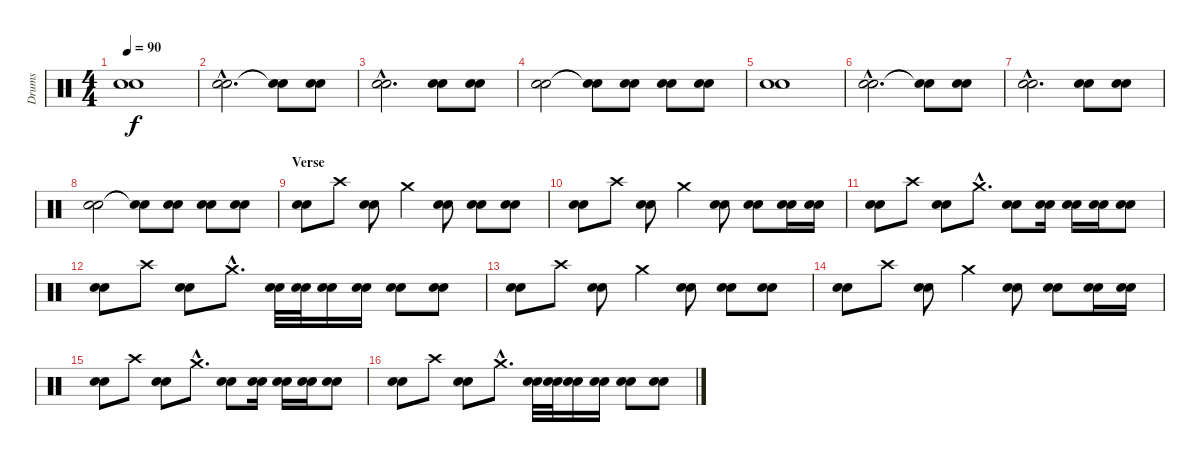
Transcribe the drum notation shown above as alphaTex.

\track ("Drums" "Drums") {instrument percussion}
\staff {score}
\articulation defaults
\ts (4 4)
\tempo 90
\clef neutral
\ks c
("Electric Snare (hit)" "Snare (hit) 2").1{dy f} |
("Electric Snare (hit)"{hac} "Snare (hit) 2"{hac}).2{d} ("Snare (hit)"{t} "Snare (hit)"{t}).8 ("Electric Snare (hit)" "Snare (hit) 2").8 |
("Electric Snare (hit)"{hac} "Snare (hit) 2"{hac}).2{d} ("Electric Snare (hit)" "Snare (hit) 2").8 ("Electric Snare (hit)" "Snare (hit) 2").8 |
("Electric Snare (hit)" "Snare (hit) 2").2 ("Snare (hit)"{t} "Snare (hit)"{t}).8 ("Electric Snare (hit)" "Snare (hit) 2").8 ("Electric Snare (hit)" "Snare (hit) 2").8 ("Electric Snare (hit)" "Snare (hit) 2").8 |
("Electric Snare (hit)" "Snare (hit) 2").1 |
("Electric Snare (hit)"{hac} "Snare (hit) 2"{hac}).2{d} ("Snare (hit)"{t} "Snare (hit)"{t}).8 ("Electric Snare (hit)" "Snare (hit) 2").8 |
("Electric Snare (hit)"{hac} "Snare (hit) 2"{hac}).2{d} ("Electric Snare (hit)" "Snare (hit) 2").8 ("Electric Snare (hit)" "Snare (hit) 2").8 |
("Electric Snare (hit)" "Snare (hit) 2").2 ("Snare (hit)"{t} "Snare (hit)"{t}).8 ("Electric Snare (hit)" "Snare (hit) 2").8 ("Electric Snare (hit)" "Snare (hit) 2").8 ("Electric Snare (hit)" "Snare (hit) 2").8 |
\section ("" "Verse")
("Electric Snare (hit)" "Snare (hit) 2").8 "Crash high (hit)".8 ("Electric Snare (hit)" "Snare (hit) 2").8 "Crash medium (hit)".4 ("Electric Snare (hit)" "Snare (hit) 2").8 ("Electric Snare (hit)" "Snare (hit) 2").8 ("Electric Snare (hit)" "Snare (hit) 2").8 |
("Electric Snare (hit)" "Snare (hit) 2").8 "Crash high (hit)".8 ("Electric Snare (hit)" "Snare (hit) 2").8 "Crash medium (hit)".4 ("Electric Snare (hit)" "Snare (hit) 2").8 ("Electric Snare (hit)" "Snare (hit) 2").8 ("Electric Snare (hit)" "Snare (hit) 2").16 ("Electric Snare (hit)" "Snare (hit) 2").16 |
("Electric Snare (hit)" "Snare (hit) 2").8 "Crash high (hit)".8 ("Electric Snare (hit)" "Snare (hit) 2").8 "Crash medium (hit)"{hac}.8{d} ("Electric Snare (hit)" "Snare (hit) 2").8 ("Electric Snare (hit)" "Snare (hit) 2").16 ("Electric Snare (hit)" "Snare (hit) 2").16 ("Electric Snare (hit)" "Snare (hit) 2").16 ("Electric Snare (hit)" "Snare (hit) 2").8 |
("Electric Snare (hit)" "Snare (hit) 2").8 "Crash high (hit)".8 ("Electric Snare (hit)" "Snare (hit) 2").8 "Crash medium (hit)"{hac}.8{d} ("Electric Snare (hit)" "Snare (hit) 2").32 ("Electric Snare (hit)" "Snare (hit) 2").32 ("Electric Snare (hit)" "Snare (hit) 2").16 ("Electric Snare (hit)" "Snare (hit) 2").16 ("Electric Snare (hit)" "Snare (hit) 2").8 ("Electric Snare (hit)" "Snare (hit) 2").8 |
("Electric Snare (hit)" "Snare (hit) 2").8 "Crash high (hit)".8 ("Electric Snare (hit)" "Snare (hit) 2").8 "Crash medium (hit)".4 ("Electric Snare (hit)" "Snare (hit) 2").8 ("Electric Snare (hit)" "Snare (hit) 2").8 ("Electric Snare (hit)" "Snare (hit) 2").8 |
("Electric Snare (hit)" "Snare (hit) 2").8 "Crash high (hit)".8 ("Electric Snare (hit)" "Snare (hit) 2").8 "Crash medium (hit)".4 ("Electric Snare (hit)" "Snare (hit) 2").8 ("Electric Snare (hit)" "Snare (hit) 2").8 ("Electric Snare (hit)" "Snare (hit) 2").16 ("Electric Snare (hit)" "Snare (hit) 2").16 |
("Electric Snare (hit)" "Snare (hit) 2").8 "Crash high (hit)".8 ("Electric Snare (hit)" "Snare (hit) 2").8 "Crash medium (hit)"{hac}.8{d} ("Electric Snare (hit)" "Snare (hit) 2").8 ("Electric Snare (hit)" "Snare (hit) 2").16 ("Electric Snare (hit)" "Snare (hit) 2").16 ("Electric Snare (hit)" "Snare (hit) 2").16 ("Electric Snare (hit)" "Snare (hit) 2").8 |
("Electric Snare (hit)" "Snare (hit) 2").8 "Crash high (hit)".8 ("Electric Snare (hit)" "Snare (hit) 2").8 "Crash medium (hit)"{hac}.8{d} ("Electric Snare (hit)" "Snare (hit) 2").32 ("Electric Snare (hit)" "Snare (hit) 2").32 ("Electric Snare (hit)" "Snare (hit) 2").16 ("Electric Snare (hit)" "Snare (hit) 2").16 ("Electric Snare (hit)" "Snare (hit) 2").8 ("Electric Snare (hit)" "Snare (hit) 2").8
